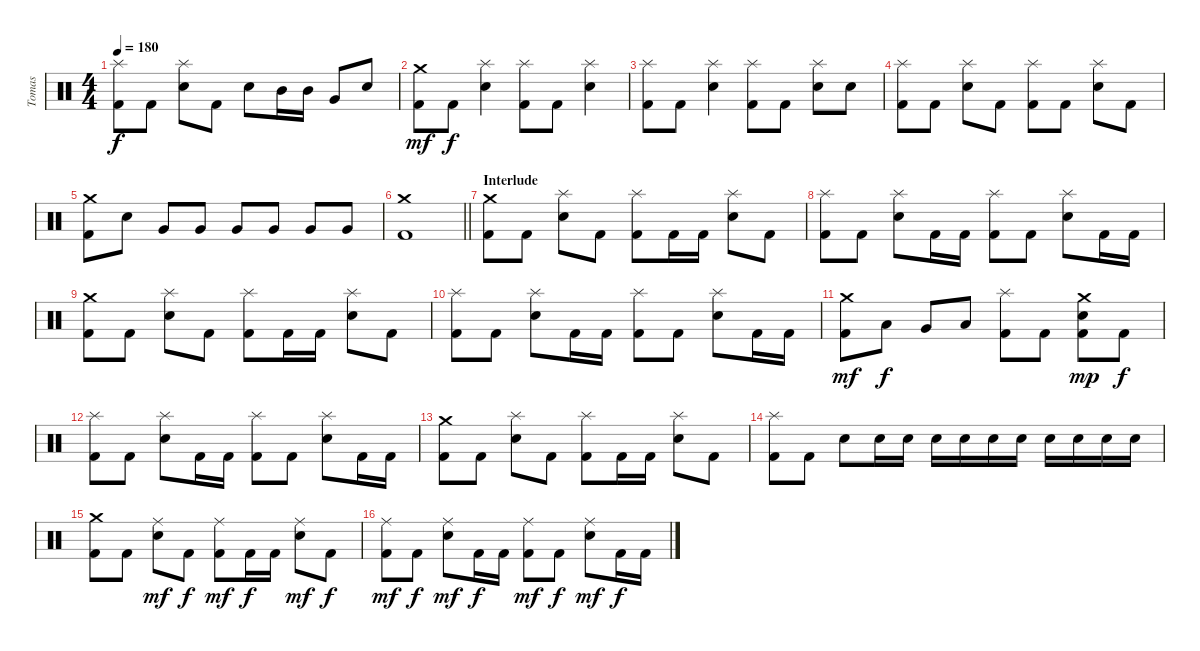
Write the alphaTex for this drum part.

\track ("Tomas" "Tomas") {instrument percussion}
\staff {score}
\articulation defaults
\ts (4 4)
\tempo 180
\clef neutral
\ks c
("Kick (hit) 2" "Splash (hit)").8{dy f} "Kick (hit) 2".8 ("Electric Snare (hit)" "Splash (hit)").8 "Kick (hit) 2".8 "Electric Snare (hit)".8 "Mid Tom (hit)".16 "Mid Tom (hit)".16 "Very Low Tom (hit)".8 "Electric Snare (hit)".8 |
("Kick (hit) 2" "Crash medium (hit)").8{dy mf} "Kick (hit) 2".8{dy f} ("Electric Snare (hit)" "Splash (hit)").4 ("Kick (hit) 2" "Splash (hit)").8 "Kick (hit) 2".8 ("Electric Snare (hit)" "Splash (hit)").4 |
("Kick (hit) 2" "Splash (hit)").8 "Kick (hit) 2".8 ("Electric Snare (hit)" "Splash (hit)").4 ("Kick (hit) 2" "Splash (hit)").8 "Kick (hit) 2".8 ("Electric Snare (hit)" "Splash (hit)").8 "Electric Snare (hit)".8 |
("Kick (hit) 2" "Splash (hit)").8 "Kick (hit) 2".8 ("Electric Snare (hit)" "Splash (hit)").8 "Kick (hit) 2".8 ("Kick (hit) 2" "Splash (hit)").8 "Kick (hit) 2".8 ("Electric Snare (hit)" "Splash (hit)").8 "Kick (hit) 2".8 |
("Kick (hit) 2" "Crash medium (hit)").8 "Electric Snare (hit)".8 "Very Low Tom (hit)".8 "Very Low Tom (hit)".8 "Very Low Tom (hit)".8 "Very Low Tom (hit)".8 "Very Low Tom (hit)".8 "Very Low Tom (hit)".8 |
\barLineRight lightlight
("Kick (hit) 2" "Crash medium (hit)").1 |
\section ("" "Interlude")
("Kick (hit) 2" "Crash medium (hit)").8 "Kick (hit) 2".8 ("Electric Snare (hit)" "Splash (hit)").8 "Kick (hit) 2".8 ("Kick (hit) 2" "Splash (hit)").8 "Kick (hit) 2".16 "Kick (hit) 2".16 ("Electric Snare (hit)" "Splash (hit)").8 "Kick (hit) 2".8 |
("Kick (hit) 2" "Splash (hit)").8 "Kick (hit) 2".8 ("Electric Snare (hit)" "Splash (hit)").8 "Kick (hit) 2".16 "Kick (hit) 2".16 ("Kick (hit) 2" "Splash (hit)").8 "Kick (hit) 2".8 ("Electric Snare (hit)" "Splash (hit)").8 "Kick (hit) 2".16 "Kick (hit) 2".16 |
("Kick (hit) 2" "Crash medium (hit)").8 "Kick (hit) 2".8 ("Electric Snare (hit)" "Splash (hit)").8 "Kick (hit) 2".8 ("Kick (hit) 2" "Splash (hit)").8 "Kick (hit) 2".16 "Kick (hit) 2".16 ("Electric Snare (hit)" "Splash (hit)").8 "Kick (hit) 2".8 |
("Kick (hit) 2" "Splash (hit)").8 "Kick (hit) 2".8 ("Electric Snare (hit)" "Splash (hit)").8 "Kick (hit) 2".16 "Kick (hit) 2".16 ("Kick (hit) 2" "Splash (hit)").8 "Kick (hit) 2".8 ("Electric Snare (hit)" "Splash (hit)").8 "Kick (hit) 2".16 "Kick (hit) 2".16 |
("Kick (hit) 2" "Crash medium (hit)").8{dy mf} "Low Tom (hit)".8{dy f} "Very Low Tom (hit)".8 "Low Floor Tom (hit)".8 ("Kick (hit) 2" "Splash (hit)").8 "Kick (hit) 2".8 ("Kick (hit) 2" "Electric Snare (hit)" "Crash medium (hit)").8{dy mp} "Kick (hit) 2".8{dy f} |
("Kick (hit) 2" "Splash (hit)").8 "Kick (hit) 2".8 ("Electric Snare (hit)" "Splash (hit)").8 "Kick (hit) 2".16 "Kick (hit) 2".16 ("Kick (hit) 2" "Splash (hit)").8 "Kick (hit) 2".8 ("Electric Snare (hit)" "Splash (hit)").8 "Kick (hit) 2".16 "Kick (hit) 2".16 |
("Kick (hit) 2" "Crash medium (hit)").8 "Kick (hit) 2".8 ("Electric Snare (hit)" "Splash (hit)").8 "Kick (hit) 2".8 ("Kick (hit) 2" "Splash (hit)").8 "Kick (hit) 2".16 "Kick (hit) 2".16 ("Electric Snare (hit)" "Splash (hit)").8 "Kick (hit) 2".8 |
("Kick (hit) 2" "Splash (hit)").8 "Kick (hit) 2".8 "Electric Snare (hit)".8 "Electric Snare (hit)".16 "Electric Snare (hit)".16 "Electric Snare (hit)".16 "Electric Snare (hit)".16 "Electric Snare (hit)".16 "Electric Snare (hit)".16 "Electric Snare (hit)".16 "Electric Snare (hit)".16 "Electric Snare (hit)".16 "Electric Snare (hit)".16 |
("Kick (hit) 2" "Crash medium (hit)").8 "Kick (hit) 2".8 ("Electric Snare (hit)" "Ride (middle)").8{dy mf} "Kick (hit) 2".8{dy f} ("Kick (hit) 2" "Ride (middle)").8{dy mf} "Kick (hit) 2".16{dy f} "Kick (hit) 2".16 ("Electric Snare (hit)" "Ride (middle)").8{dy mf} "Kick (hit) 2".8{dy f} |
("Kick (hit) 2" "Ride (middle)").8{dy mf} "Kick (hit) 2".8{dy f} ("Electric Snare (hit)" "Ride (middle)").8{dy mf} "Kick (hit) 2".16{dy f} "Kick (hit) 2".16 ("Kick (hit) 2" "Ride (middle)").8{dy mf} "Kick (hit) 2".8{dy f} ("Electric Snare (hit)" "Ride (middle)").8{dy mf} "Kick (hit) 2".16{dy f} "Kick (hit) 2".16
